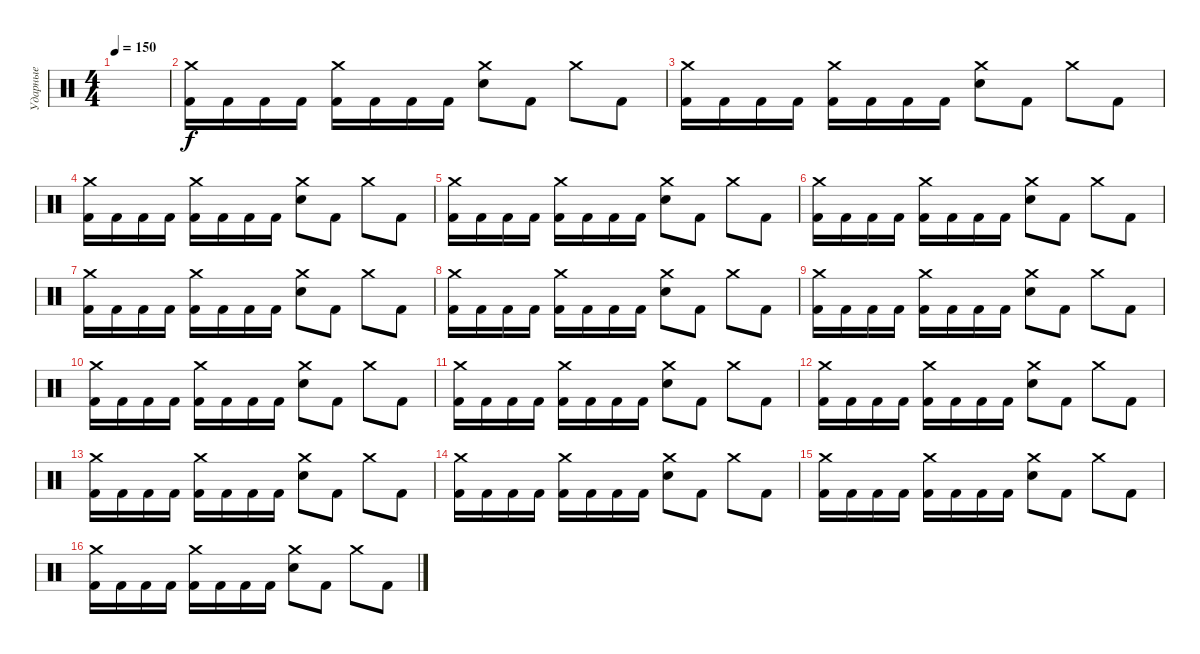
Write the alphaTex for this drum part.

\track ("Ударные" "Ударные") {instrument percussion}
\staff {score}
\articulation defaults
\ts (4 4)
\tempo 150
\clef neutral
\ks c
|
("Crash medium (hit)" "Kick (hit) 2").16 "Kick (hit) 2".16 "Kick (hit) 2".16 "Kick (hit) 2".16 ("Crash medium (hit)" "Kick (hit) 2").16 "Kick (hit) 2".16 "Kick (hit) 2".16 "Kick (hit) 2".16 ("Crash medium (hit)" "Electric Snare (hit)").8 "Kick (hit) 2".8 "Crash medium (hit)".8 "Kick (hit) 2".8 |
("Crash medium (hit)" "Kick (hit) 2").16 "Kick (hit) 2".16 "Kick (hit) 2".16 "Kick (hit) 2".16 ("Crash medium (hit)" "Kick (hit) 2").16 "Kick (hit) 2".16 "Kick (hit) 2".16 "Kick (hit) 2".16 ("Crash medium (hit)" "Electric Snare (hit)").8 "Kick (hit) 2".8 "Crash medium (hit)".8 "Kick (hit) 2".8 |
("Crash medium (hit)" "Kick (hit) 2").16 "Kick (hit) 2".16 "Kick (hit) 2".16 "Kick (hit) 2".16 ("Crash medium (hit)" "Kick (hit) 2").16 "Kick (hit) 2".16 "Kick (hit) 2".16 "Kick (hit) 2".16 ("Crash medium (hit)" "Electric Snare (hit)").8 "Kick (hit) 2".8 "Crash medium (hit)".8 "Kick (hit) 2".8 |
("Crash medium (hit)" "Kick (hit) 2").16 "Kick (hit) 2".16 "Kick (hit) 2".16 "Kick (hit) 2".16 ("Crash medium (hit)" "Kick (hit) 2").16 "Kick (hit) 2".16 "Kick (hit) 2".16 "Kick (hit) 2".16 ("Crash medium (hit)" "Electric Snare (hit)").8 "Kick (hit) 2".8 "Crash medium (hit)".8 "Kick (hit) 2".8 |
("Crash medium (hit)" "Kick (hit) 2").16 "Kick (hit) 2".16 "Kick (hit) 2".16 "Kick (hit) 2".16 ("Crash medium (hit)" "Kick (hit) 2").16 "Kick (hit) 2".16 "Kick (hit) 2".16 "Kick (hit) 2".16 ("Crash medium (hit)" "Electric Snare (hit)").8 "Kick (hit) 2".8 "Crash medium (hit)".8 "Kick (hit) 2".8 |
("Crash medium (hit)" "Kick (hit) 2").16 "Kick (hit) 2".16 "Kick (hit) 2".16 "Kick (hit) 2".16 ("Crash medium (hit)" "Kick (hit) 2").16 "Kick (hit) 2".16 "Kick (hit) 2".16 "Kick (hit) 2".16 ("Crash medium (hit)" "Electric Snare (hit)").8 "Kick (hit) 2".8 "Crash medium (hit)".8 "Kick (hit) 2".8 |
("Crash medium (hit)" "Kick (hit) 2").16 "Kick (hit) 2".16 "Kick (hit) 2".16 "Kick (hit) 2".16 ("Crash medium (hit)" "Kick (hit) 2").16 "Kick (hit) 2".16 "Kick (hit) 2".16 "Kick (hit) 2".16 ("Crash medium (hit)" "Electric Snare (hit)").8 "Kick (hit) 2".8 "Crash medium (hit)".8 "Kick (hit) 2".8 |
("Crash medium (hit)" "Kick (hit) 2").16 "Kick (hit) 2".16 "Kick (hit) 2".16 "Kick (hit) 2".16 ("Crash medium (hit)" "Kick (hit) 2").16 "Kick (hit) 2".16 "Kick (hit) 2".16 "Kick (hit) 2".16 ("Crash medium (hit)" "Electric Snare (hit)").8 "Kick (hit) 2".8 "Crash medium (hit)".8 "Kick (hit) 2".8 |
("Crash medium (hit)" "Kick (hit) 2").16 "Kick (hit) 2".16 "Kick (hit) 2".16 "Kick (hit) 2".16 ("Crash medium (hit)" "Kick (hit) 2").16 "Kick (hit) 2".16 "Kick (hit) 2".16 "Kick (hit) 2".16 ("Crash medium (hit)" "Electric Snare (hit)").8 "Kick (hit) 2".8 "Crash medium (hit)".8 "Kick (hit) 2".8 |
("Crash medium (hit)" "Kick (hit) 2").16 "Kick (hit) 2".16 "Kick (hit) 2".16 "Kick (hit) 2".16 ("Crash medium (hit)" "Kick (hit) 2").16 "Kick (hit) 2".16 "Kick (hit) 2".16 "Kick (hit) 2".16 ("Crash medium (hit)" "Electric Snare (hit)").8 "Kick (hit) 2".8 "Crash medium (hit)".8 "Kick (hit) 2".8 |
("Crash medium (hit)" "Kick (hit) 2").16 "Kick (hit) 2".16 "Kick (hit) 2".16 "Kick (hit) 2".16 ("Crash medium (hit)" "Kick (hit) 2").16 "Kick (hit) 2".16 "Kick (hit) 2".16 "Kick (hit) 2".16 ("Crash medium (hit)" "Electric Snare (hit)").8 "Kick (hit) 2".8 "Crash medium (hit)".8 "Kick (hit) 2".8 |
("Crash medium (hit)" "Kick (hit) 2").16 "Kick (hit) 2".16 "Kick (hit) 2".16 "Kick (hit) 2".16 ("Crash medium (hit)" "Kick (hit) 2").16 "Kick (hit) 2".16 "Kick (hit) 2".16 "Kick (hit) 2".16 ("Crash medium (hit)" "Electric Snare (hit)").8 "Kick (hit) 2".8 "Crash medium (hit)".8 "Kick (hit) 2".8 |
("Crash medium (hit)" "Kick (hit) 2").16 "Kick (hit) 2".16 "Kick (hit) 2".16 "Kick (hit) 2".16 ("Crash medium (hit)" "Kick (hit) 2").16 "Kick (hit) 2".16 "Kick (hit) 2".16 "Kick (hit) 2".16 ("Crash medium (hit)" "Electric Snare (hit)").8 "Kick (hit) 2".8 "Crash medium (hit)".8 "Kick (hit) 2".8 |
("Crash medium (hit)" "Kick (hit) 2").16 "Kick (hit) 2".16 "Kick (hit) 2".16 "Kick (hit) 2".16 ("Crash medium (hit)" "Kick (hit) 2").16 "Kick (hit) 2".16 "Kick (hit) 2".16 "Kick (hit) 2".16 ("Crash medium (hit)" "Electric Snare (hit)").8 "Kick (hit) 2".8 "Crash medium (hit)".8 "Kick (hit) 2".8 |
("Crash medium (hit)" "Kick (hit) 2").16 "Kick (hit) 2".16 "Kick (hit) 2".16 "Kick (hit) 2".16 ("Crash medium (hit)" "Kick (hit) 2").16 "Kick (hit) 2".16 "Kick (hit) 2".16 "Kick (hit) 2".16 ("Crash medium (hit)" "Electric Snare (hit)").8 "Kick (hit) 2".8 "Crash medium (hit)".8 "Kick (hit) 2".8
